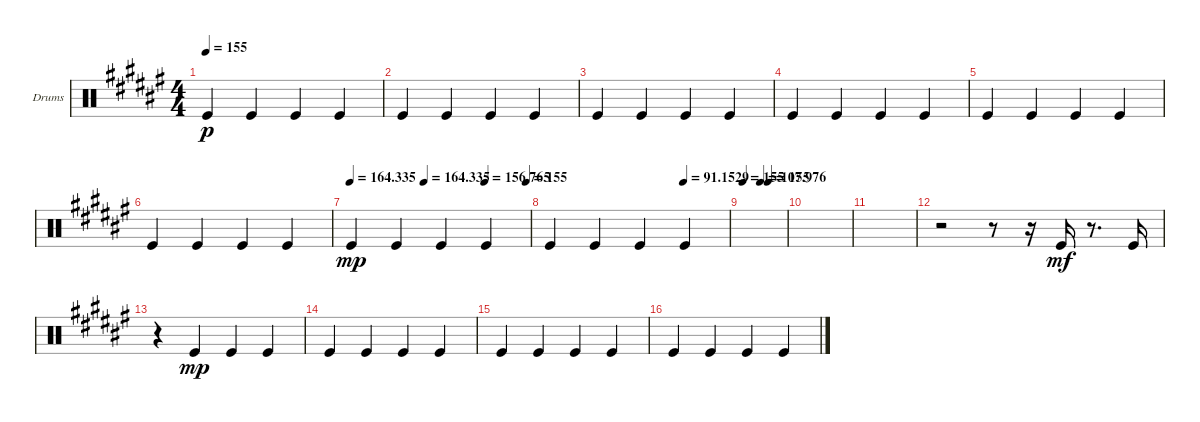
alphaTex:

\bracketExtendMode groupsimilarinstruments
\firstSystemTrackNameOrientation horizontal
\otherSystemsTrackNameOrientation horizontal
\track ("Kick" "Drums") {instrument percussion}
\staff {score}
\articulation defaults
\ts (4 4)
\tempo 155
\clef neutral
\ks f# "Kick (hit)".4{dy p} "Kick (hit)".4 "Kick (hit)".4 "Kick (hit)".4
|
"Kick (hit)".4 "Kick (hit)".4 "Kick (hit)".4 "Kick (hit)".4 |
"Kick (hit)".4 "Kick (hit)".4 "Kick (hit)".4 "Kick (hit)".4 |
"Kick (hit)".4 "Kick (hit)".4 "Kick (hit)".4 "Kick (hit)".4 |
"Kick (hit)".4 "Kick (hit)".4 "Kick (hit)".4 "Kick (hit)".4 |
"Kick (hit)".4 "Kick (hit)".4 "Kick (hit)".4 "Kick (hit)".4 |
\tempo
164.335
\tempo (164.335 0.4125)
\tempo (156.765 0.75)
\tempo (155 0.98125)
"Kick (hit)".4{dy mp} "Kick (hit)".4 "Kick (hit)".4 "Kick (hit)".4 |
\tempo (91.1529 0.75)
"Kick (hit)".4 "Kick (hit)".4 "Kick (hit)".4 "Kick (hit)".4 |
\tempo (155 0.01875)
\tempo (107.976 0.41875)
\tempo (155 0.59375)
|
|
|
r.2 r.8 r.16 "Kick (hit)".16{dy mf} r.8{d} "Kick (hit)".16 |
r.4 "Kick (hit)".4{dy mp} "Kick (hit)".4 "Kick (hit)".4 |
"Kick (hit)".4 "Kick (hit)".4 "Kick (hit)".4 "Kick (hit)".4 |
"Kick (hit)".4 "Kick (hit)".4 "Kick (hit)".4 "Kick (hit)".4 |
"Kick (hit)".4 "Kick (hit)".4 "Kick (hit)".4 "Kick (hit)".4
